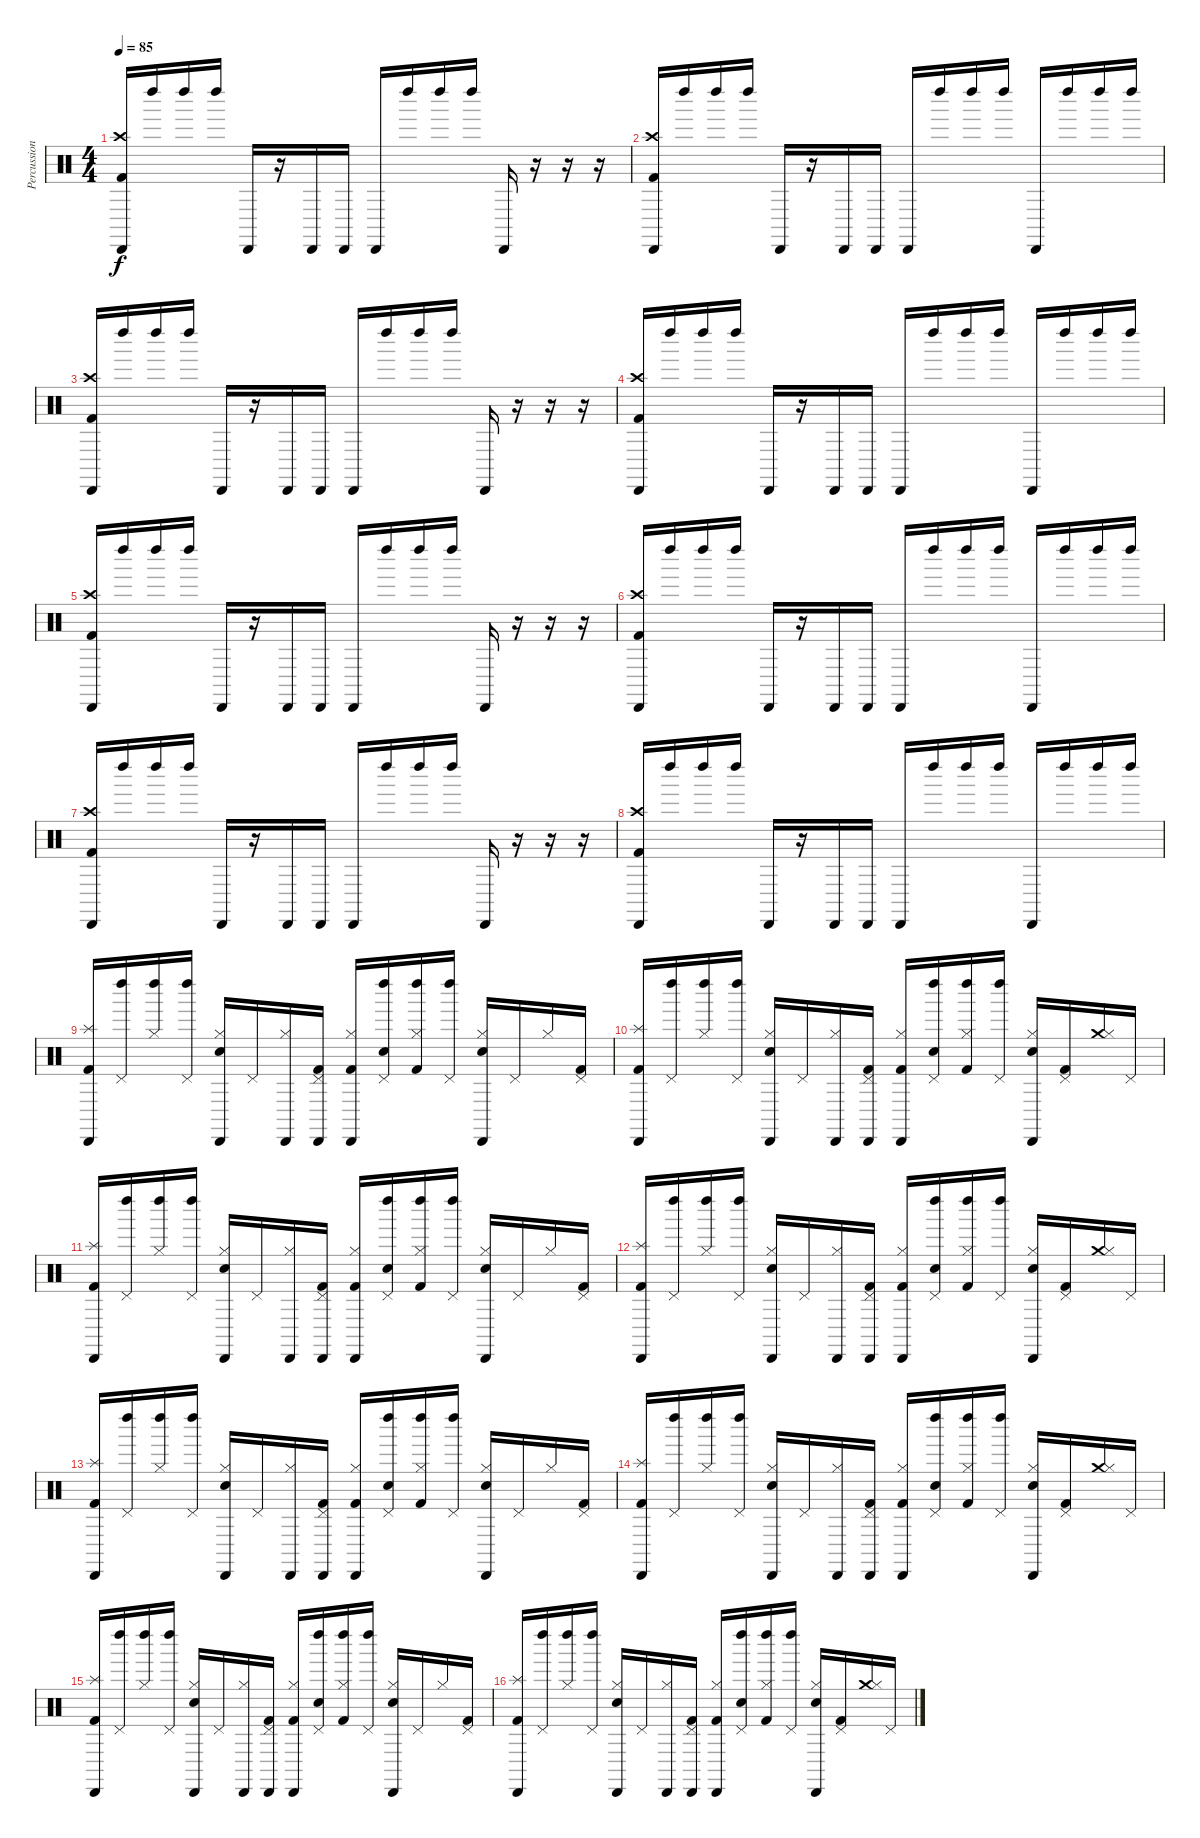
\track ("Percussion" "Percussion") {instrument percussion}
\staff {score}
\articulation defaults
\ts (4 4)
\tempo 85
\clef neutral
\ks c
("Cabasa (hit)" "Crash high (hit)" "Kick (hit) 2").16{dy f} "Left Maraca (hit)".16 "Left Maraca (hit)".16 "Left Maraca (hit)".16 "Cabasa (hit)".16 r.16 "Cabasa (hit)".16 "Cabasa (hit)".16 "Cabasa (hit)".16 "Left Maraca (hit)".16 "Left Maraca (hit)".16 "Left Maraca (hit)".16 "Cabasa (hit)".16 r.16 r.16 r.16 |
("Cabasa (hit)" "Crash high (hit)" "Kick (hit) 2").16 "Left Maraca (hit)".16 "Left Maraca (hit)".16 "Left Maraca (hit)".16 "Cabasa (hit)".16 r.16 "Cabasa (hit)".16 "Cabasa (hit)".16 "Cabasa (hit)".16 "Left Maraca (hit)".16 "Left Maraca (hit)".16 "Left Maraca (hit)".16 "Cabasa (hit)".16 "Left Maraca (hit)".16 "Left Maraca (hit)".16 "Left Maraca (hit)".16 |
("Cabasa (hit)" "Crash high (hit)" "Kick (hit) 2").16 "Left Maraca (hit)".16 "Left Maraca (hit)".16 "Left Maraca (hit)".16 "Cabasa (hit)".16 r.16 "Cabasa (hit)".16 "Cabasa (hit)".16 "Cabasa (hit)".16 "Left Maraca (hit)".16 "Left Maraca (hit)".16 "Left Maraca (hit)".16 "Cabasa (hit)".16 r.16 r.16 r.16 |
("Cabasa (hit)" "Crash high (hit)" "Kick (hit) 2").16 "Left Maraca (hit)".16 "Left Maraca (hit)".16 "Left Maraca (hit)".16 "Cabasa (hit)".16 r.16 "Cabasa (hit)".16 "Cabasa (hit)".16 "Cabasa (hit)".16 "Left Maraca (hit)".16 "Left Maraca (hit)".16 "Left Maraca (hit)".16 "Cabasa (hit)".16 "Left Maraca (hit)".16 "Left Maraca (hit)".16 "Left Maraca (hit)".16 |
("Cabasa (hit)" "Crash high (hit)" "Kick (hit) 2").16 "Left Maraca (hit)".16 "Left Maraca (hit)".16 "Left Maraca (hit)".16 "Cabasa (hit)".16 r.16 "Cabasa (hit)".16 "Cabasa (hit)".16 "Cabasa (hit)".16 "Left Maraca (hit)".16 "Left Maraca (hit)".16 "Left Maraca (hit)".16 "Cabasa (hit)".16 r.16 r.16 r.16 |
("Cabasa (hit)" "Crash high (hit)" "Kick (hit) 2").16 "Left Maraca (hit)".16 "Left Maraca (hit)".16 "Left Maraca (hit)".16 "Cabasa (hit)".16 r.16 "Cabasa (hit)".16 "Cabasa (hit)".16 "Cabasa (hit)".16 "Left Maraca (hit)".16 "Left Maraca (hit)".16 "Left Maraca (hit)".16 "Cabasa (hit)".16 "Left Maraca (hit)".16 "Left Maraca (hit)".16 "Left Maraca (hit)".16 |
("Cabasa (hit)" "Crash high (hit)" "Kick (hit) 2").16 "Left Maraca (hit)".16 "Left Maraca (hit)".16 "Left Maraca (hit)".16 "Cabasa (hit)".16 r.16 "Cabasa (hit)".16 "Cabasa (hit)".16 "Cabasa (hit)".16 "Left Maraca (hit)".16 "Left Maraca (hit)".16 "Left Maraca (hit)".16 "Cabasa (hit)".16 r.16 r.16 r.16 |
("Cabasa (hit)" "Crash high (hit)" "Kick (hit) 2").16 "Left Maraca (hit)".16 "Left Maraca (hit)".16 "Left Maraca (hit)".16 "Cabasa (hit)".16 r.16 "Cabasa (hit)".16 "Cabasa (hit)".16 "Cabasa (hit)".16 "Left Maraca (hit)".16 "Left Maraca (hit)".16 "Left Maraca (hit)".16 "Cabasa (hit)".16 "Left Maraca (hit)".16 "Left Maraca (hit)".16 "Left Maraca (hit)".16 |
("Cabasa (hit)" "Splash (hit)" "Kick (hit) 2").16 ("Left Maraca (hit)" "Pedal Hi-Hat (hit)").16 ("Left Maraca (hit)" "Hi-Hat (closed)").16 ("Left Maraca (hit)" "Pedal Hi-Hat (hit)").16 ("Cabasa (hit)" "Hi-Hat (closed)" "Snare (hit) 2").16 "Pedal Hi-Hat (hit)".16 ("Cabasa (hit)" "Hi-Hat (closed)").16 ("Cabasa (hit)" "Pedal Hi-Hat (hit)" "Kick (hit) 2").16 ("Cabasa (hit)" "Hi-Hat (closed)" "Kick (hit) 2").16 ("Left Maraca (hit)" "Pedal Hi-Hat (hit)" "Snare (hit) 2").16 ("Left Maraca (hit)" "Hi-Hat (closed)" "Kick (hit) 2").16 ("Left Maraca (hit)" "Pedal Hi-Hat (hit)").16 ("Cabasa (hit)" "Hi-Hat (closed)" "Snare (hit) 2").16 "Pedal Hi-Hat (hit)".16 "Hi-Hat (closed)".16 ("Pedal Hi-Hat (hit)" "Kick (hit) 2").16 |
("Cabasa (hit)" "Splash (hit)" "Kick (hit) 2").16 ("Left Maraca (hit)" "Pedal Hi-Hat (hit)").16 ("Left Maraca (hit)" "Hi-Hat (closed)").16 ("Left Maraca (hit)" "Pedal Hi-Hat (hit)").16 ("Cabasa (hit)" "Hi-Hat (closed)" "Snare (hit) 2").16 "Pedal Hi-Hat (hit)".16 ("Cabasa (hit)" "Hi-Hat (closed)").16 ("Cabasa (hit)" "Pedal Hi-Hat (hit)" "Kick (hit) 2").16 ("Cabasa (hit)" "Hi-Hat (closed)" "Kick (hit) 2").16 ("Left Maraca (hit)" "Pedal Hi-Hat (hit)" "Snare (hit) 2").16 ("Left Maraca (hit)" "Hi-Hat (closed)" "Kick (hit) 2").16 ("Left Maraca (hit)" "Pedal Hi-Hat (hit)").16 ("Cabasa (hit)" "Hi-Hat (closed)" "Snare (hit) 2").16 ("Pedal Hi-Hat (hit)" "Kick (hit) 2").16 ("Crash medium (hit)" "Hi-Hat (closed)").16 "Pedal Hi-Hat (hit)".16 |
("Cabasa (hit)" "Splash (hit)" "Kick (hit) 2").16 ("Left Maraca (hit)" "Pedal Hi-Hat (hit)").16 ("Left Maraca (hit)" "Hi-Hat (closed)").16 ("Left Maraca (hit)" "Pedal Hi-Hat (hit)").16 ("Cabasa (hit)" "Hi-Hat (closed)" "Snare (hit) 2").16 "Pedal Hi-Hat (hit)".16 ("Cabasa (hit)" "Hi-Hat (closed)").16 ("Cabasa (hit)" "Pedal Hi-Hat (hit)" "Kick (hit) 2").16 ("Cabasa (hit)" "Hi-Hat (closed)" "Kick (hit) 2").16 ("Left Maraca (hit)" "Pedal Hi-Hat (hit)" "Snare (hit) 2").16 ("Left Maraca (hit)" "Hi-Hat (closed)" "Kick (hit) 2").16 ("Left Maraca (hit)" "Pedal Hi-Hat (hit)").16 ("Cabasa (hit)" "Hi-Hat (closed)" "Snare (hit) 2").16 "Pedal Hi-Hat (hit)".16 "Hi-Hat (closed)".16 ("Pedal Hi-Hat (hit)" "Kick (hit) 2").16 |
("Cabasa (hit)" "Splash (hit)" "Kick (hit) 2").16 ("Left Maraca (hit)" "Pedal Hi-Hat (hit)").16 ("Left Maraca (hit)" "Hi-Hat (closed)").16 ("Left Maraca (hit)" "Pedal Hi-Hat (hit)").16 ("Cabasa (hit)" "Hi-Hat (closed)" "Snare (hit) 2").16 "Pedal Hi-Hat (hit)".16 ("Cabasa (hit)" "Hi-Hat (closed)").16 ("Cabasa (hit)" "Pedal Hi-Hat (hit)" "Kick (hit) 2").16 ("Cabasa (hit)" "Hi-Hat (closed)" "Kick (hit) 2").16 ("Left Maraca (hit)" "Pedal Hi-Hat (hit)" "Snare (hit) 2").16 ("Left Maraca (hit)" "Hi-Hat (closed)" "Kick (hit) 2").16 ("Left Maraca (hit)" "Pedal Hi-Hat (hit)").16 ("Cabasa (hit)" "Hi-Hat (closed)" "Snare (hit) 2").16 ("Pedal Hi-Hat (hit)" "Kick (hit) 2").16 ("Crash medium (hit)" "Hi-Hat (closed)").16 "Pedal Hi-Hat (hit)".16 |
("Cabasa (hit)" "Splash (hit)" "Kick (hit) 2").16 ("Left Maraca (hit)" "Pedal Hi-Hat (hit)").16 ("Left Maraca (hit)" "Hi-Hat (closed)").16 ("Left Maraca (hit)" "Pedal Hi-Hat (hit)").16 ("Cabasa (hit)" "Hi-Hat (closed)" "Snare (hit) 2").16 "Pedal Hi-Hat (hit)".16 ("Cabasa (hit)" "Hi-Hat (closed)").16 ("Cabasa (hit)" "Pedal Hi-Hat (hit)" "Kick (hit) 2").16 ("Cabasa (hit)" "Hi-Hat (closed)" "Kick (hit) 2").16 ("Left Maraca (hit)" "Pedal Hi-Hat (hit)" "Snare (hit) 2").16 ("Left Maraca (hit)" "Hi-Hat (closed)" "Kick (hit) 2").16 ("Left Maraca (hit)" "Pedal Hi-Hat (hit)").16 ("Cabasa (hit)" "Hi-Hat (closed)" "Snare (hit) 2").16 "Pedal Hi-Hat (hit)".16 "Hi-Hat (closed)".16 ("Pedal Hi-Hat (hit)" "Kick (hit) 2").16 |
("Cabasa (hit)" "Splash (hit)" "Kick (hit) 2").16 ("Left Maraca (hit)" "Pedal Hi-Hat (hit)").16 ("Left Maraca (hit)" "Hi-Hat (closed)").16 ("Left Maraca (hit)" "Pedal Hi-Hat (hit)").16 ("Cabasa (hit)" "Hi-Hat (closed)" "Snare (hit) 2").16 "Pedal Hi-Hat (hit)".16 ("Cabasa (hit)" "Hi-Hat (closed)").16 ("Cabasa (hit)" "Pedal Hi-Hat (hit)" "Kick (hit) 2").16 ("Cabasa (hit)" "Hi-Hat (closed)" "Kick (hit) 2").16 ("Left Maraca (hit)" "Pedal Hi-Hat (hit)" "Snare (hit) 2").16 ("Left Maraca (hit)" "Hi-Hat (closed)" "Kick (hit) 2").16 ("Left Maraca (hit)" "Pedal Hi-Hat (hit)").16 ("Cabasa (hit)" "Hi-Hat (closed)" "Snare (hit) 2").16 ("Pedal Hi-Hat (hit)" "Kick (hit) 2").16 ("Crash medium (hit)" "Hi-Hat (closed)").16 "Pedal Hi-Hat (hit)".16 |
("Cabasa (hit)" "Splash (hit)" "Kick (hit) 2").16 ("Left Maraca (hit)" "Pedal Hi-Hat (hit)").16 ("Left Maraca (hit)" "Hi-Hat (closed)").16 ("Left Maraca (hit)" "Pedal Hi-Hat (hit)").16 ("Cabasa (hit)" "Hi-Hat (closed)" "Snare (hit) 2").16 "Pedal Hi-Hat (hit)".16 ("Cabasa (hit)" "Hi-Hat (closed)").16 ("Cabasa (hit)" "Pedal Hi-Hat (hit)" "Kick (hit) 2").16 ("Cabasa (hit)" "Hi-Hat (closed)" "Kick (hit) 2").16 ("Left Maraca (hit)" "Pedal Hi-Hat (hit)" "Snare (hit) 2").16 ("Left Maraca (hit)" "Hi-Hat (closed)" "Kick (hit) 2").16 ("Left Maraca (hit)" "Pedal Hi-Hat (hit)").16 ("Cabasa (hit)" "Hi-Hat (closed)" "Snare (hit) 2").16 "Pedal Hi-Hat (hit)".16 "Hi-Hat (closed)".16 ("Pedal Hi-Hat (hit)" "Kick (hit) 2").16 |
("Cabasa (hit)" "Splash (hit)" "Kick (hit) 2").16 ("Left Maraca (hit)" "Pedal Hi-Hat (hit)").16 ("Left Maraca (hit)" "Hi-Hat (closed)").16 ("Left Maraca (hit)" "Pedal Hi-Hat (hit)").16 ("Cabasa (hit)" "Hi-Hat (closed)" "Snare (hit) 2").16 "Pedal Hi-Hat (hit)".16 ("Cabasa (hit)" "Hi-Hat (closed)").16 ("Cabasa (hit)" "Pedal Hi-Hat (hit)" "Kick (hit) 2").16 ("Cabasa (hit)" "Hi-Hat (closed)" "Kick (hit) 2").16 ("Left Maraca (hit)" "Pedal Hi-Hat (hit)" "Snare (hit) 2").16 ("Left Maraca (hit)" "Hi-Hat (closed)" "Kick (hit) 2").16 ("Left Maraca (hit)" "Pedal Hi-Hat (hit)").16 ("Cabasa (hit)" "Hi-Hat (closed)" "Snare (hit) 2").16 ("Pedal Hi-Hat (hit)" "Kick (hit) 2").16 ("Crash medium (hit)" "Hi-Hat (closed)").16 "Pedal Hi-Hat (hit)".16
